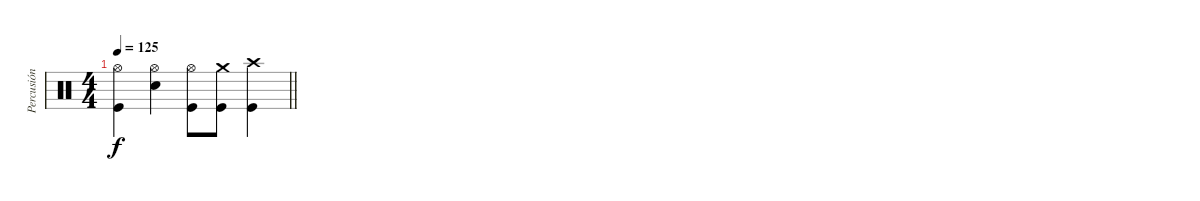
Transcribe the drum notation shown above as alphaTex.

\track ("Percusión" "Percusión") {instrument percussion}
\staff {score}
\articulation defaults
\ts (4 4)
\tempo 125
\clef neutral
\barLineRight lightlight
\ks c
("Hi-Hat (open)" "Kick (hit)").4{dy f} ("Hi-Hat (open)" "Electric Snare (hit)").4 ("Hi-Hat (open)" "Kick (hit)").8 ("Crash medium (hit)" "Kick (hit)").8 ("Crash high (hit)" "Kick (hit)").4
